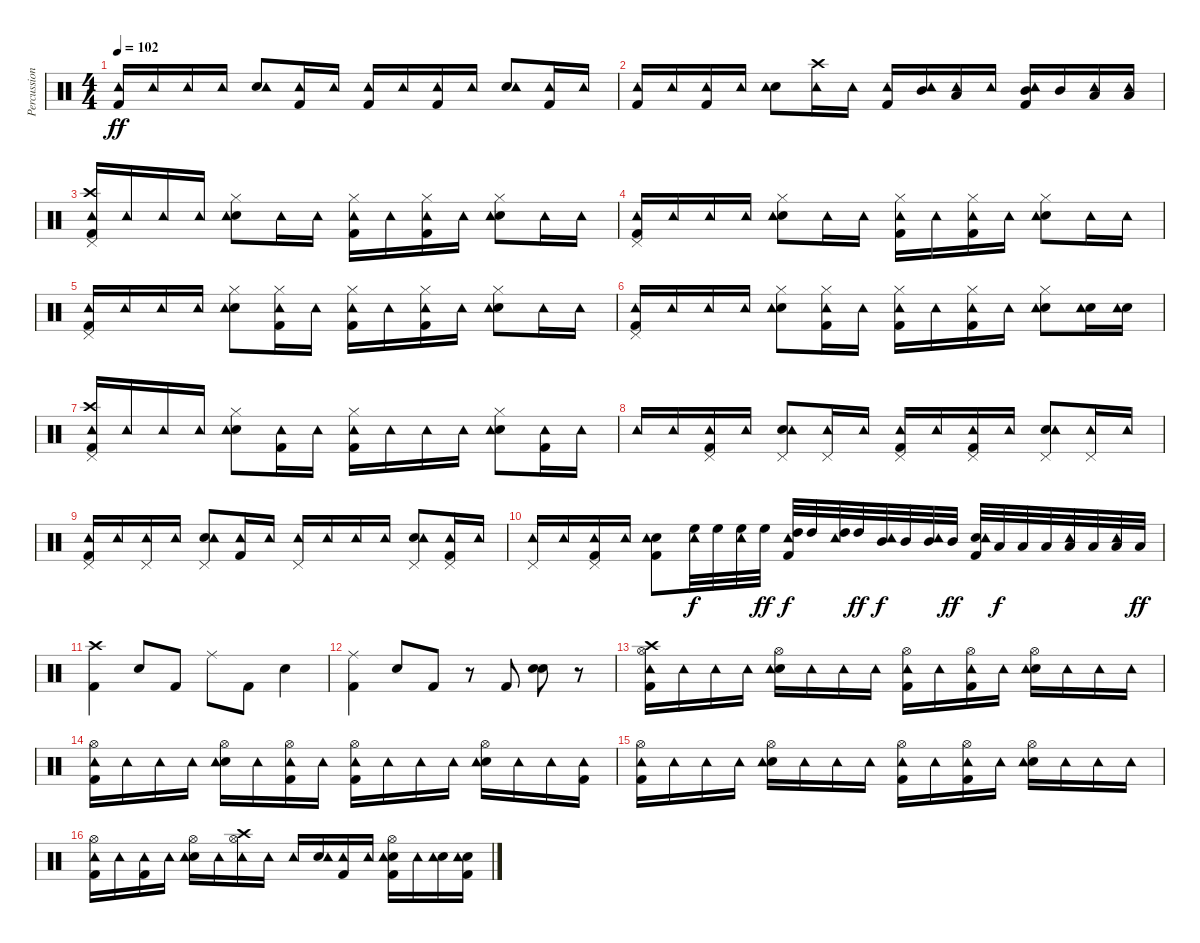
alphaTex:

\track ("Percussions" "Percussion") {instrument percussion}
\staff {score}
\articulation defaults
\ts (4 4)
\tempo 102
\clef neutral
\ks c
("Kick (hit) 2" "Tambourine (hit)").16{dy ff} "Tambourine (hit)".16 "Tambourine (hit)".16 "Tambourine (hit)".16 ("Snare (hit) 2" "Tambourine (hit)").8 ("Kick (hit) 2" "Tambourine (hit)").16 "Tambourine (hit)".16 ("Kick (hit) 2" "Tambourine (hit)").16 "Tambourine (hit)".16 ("Kick (hit) 2" "Tambourine (hit)").16 "Tambourine (hit)".16 ("Snare (hit) 2" "Tambourine (hit)").8 ("Kick (hit) 2" "Tambourine (hit)").16 "Tambourine (hit)".16 |
("Kick (hit) 2" "Tambourine (hit)").16 "Tambourine (hit)".16 ("Kick (hit) 2" "Tambourine (hit)").16 "Tambourine (hit)".16 ("Snare (hit) 2" "Tambourine (hit)").8 ("Crash high (hit)" "Tambourine (hit)").16 "Tambourine (hit)".16 ("Kick (hit) 2" "Tambourine (hit)").16 ("Mid Tom (hit)" "Tambourine (hit)").16 ("Low Tom (hit)" "Tambourine (hit)").16 "Tambourine (hit)".16 ("Kick (hit) 2" "Mid Tom (hit)" "Tambourine (hit)").16 "Mid Tom (hit)".16 ("Low Floor Tom (hit)" "Tambourine (hit)").16 ("Low Floor Tom (hit)" "Tambourine (hit)").16 |
("Kick (hit) 2" "Pedal Hi-Hat (hit)" "Crash high (hit)" "Tambourine (hit)").16 "Tambourine (hit)".16 "Tambourine (hit)".16 "Tambourine (hit)".16 ("Snare (hit) 2" "Hi-Hat (closed)" "Tambourine (hit)").8 "Tambourine (hit)".16 "Tambourine (hit)".16 ("Kick (hit) 2" "Hi-Hat (closed)" "Tambourine (hit)").16 "Tambourine (hit)".16 ("Kick (hit) 2" "Hi-Hat (closed)" "Tambourine (hit)").16 "Tambourine (hit)".16 ("Snare (hit) 2" "Hi-Hat (closed)" "Tambourine (hit)").8 "Tambourine (hit)".16 "Tambourine (hit)".16 |
("Kick (hit) 2" "Pedal Hi-Hat (hit)" "Tambourine (hit)").16 "Tambourine (hit)".16 "Tambourine (hit)".16 "Tambourine (hit)".16 ("Snare (hit) 2" "Hi-Hat (closed)" "Tambourine (hit)").8 "Tambourine (hit)".16 "Tambourine (hit)".16 ("Kick (hit) 2" "Hi-Hat (closed)" "Tambourine (hit)").16 "Tambourine (hit)".16 ("Kick (hit) 2" "Hi-Hat (closed)" "Tambourine (hit)").16 "Tambourine (hit)".16 ("Snare (hit) 2" "Hi-Hat (closed)" "Tambourine (hit)").8 "Tambourine (hit)".16 "Tambourine (hit)".16 |
("Kick (hit) 2" "Pedal Hi-Hat (hit)" "Tambourine (hit)").16 "Tambourine (hit)".16 "Tambourine (hit)".16 "Tambourine (hit)".16 ("Snare (hit) 2" "Hi-Hat (closed)" "Tambourine (hit)").8 ("Kick (hit) 2" "Hi-Hat (closed)" "Tambourine (hit)").16 "Tambourine (hit)".16 ("Kick (hit) 2" "Hi-Hat (closed)" "Tambourine (hit)").16 "Tambourine (hit)".16 ("Kick (hit) 2" "Hi-Hat (closed)" "Tambourine (hit)").16 "Tambourine (hit)".16 ("Snare (hit) 2" "Hi-Hat (closed)" "Tambourine (hit)").8 "Tambourine (hit)".16 "Tambourine (hit)".16 |
("Kick (hit) 2" "Pedal Hi-Hat (hit)" "Tambourine (hit)").16 "Tambourine (hit)".16 "Tambourine (hit)".16 "Tambourine (hit)".16 ("Snare (hit) 2" "Hi-Hat (closed)" "Tambourine (hit)").8 ("Kick (hit) 2" "Hi-Hat (closed)" "Tambourine (hit)").16 "Tambourine (hit)".16 ("Kick (hit) 2" "Hi-Hat (closed)" "Tambourine (hit)").16 "Tambourine (hit)".16 ("Kick (hit) 2" "Hi-Hat (closed)" "Tambourine (hit)").16 "Tambourine (hit)".16 ("Snare (hit) 2" "Hi-Hat (closed)" "Tambourine (hit)").8 ("Snare (hit) 2" "Tambourine (hit)").16 ("Snare (hit) 2" "Tambourine (hit)").16 |
("Kick (hit) 2" "Pedal Hi-Hat (hit)" "Crash high (hit)" "Tambourine (hit)").16 "Tambourine (hit)".16 "Tambourine (hit)".16 "Tambourine (hit)".16 ("Snare (hit) 2" "Hi-Hat (closed)" "Tambourine (hit)").8 ("Kick (hit) 2" "Tambourine (hit)").16 "Tambourine (hit)".16 ("Kick (hit) 2" "Hi-Hat (closed)" "Tambourine (hit)").16 "Tambourine (hit)".16 "Tambourine (hit)".16 "Tambourine (hit)".16 ("Snare (hit) 2" "Hi-Hat (closed)" "Tambourine (hit)").8 ("Kick (hit) 2" "Tambourine (hit)").16 "Tambourine (hit)".16 |
"Tambourine (hit)".16 "Tambourine (hit)".16 ("Kick (hit) 2" "Pedal Hi-Hat (hit)" "Tambourine (hit)").16 "Tambourine (hit)".16 ("Snare (hit) 2" "Pedal Hi-Hat (hit)" "Tambourine (hit)").8 ("Pedal Hi-Hat (hit)" "Tambourine (hit)").16 "Tambourine (hit)".16 ("Kick (hit) 2" "Pedal Hi-Hat (hit)" "Tambourine (hit)").16 "Tambourine (hit)".16 ("Kick (hit) 2" "Pedal Hi-Hat (hit)" "Tambourine (hit)").16 "Tambourine (hit)".16 ("Snare (hit) 2" "Pedal Hi-Hat (hit)" "Tambourine (hit)").8 ("Pedal Hi-Hat (hit)" "Tambourine (hit)").16 "Tambourine (hit)".16 |
("Kick (hit) 2" "Pedal Hi-Hat (hit)" "Tambourine (hit)").16 "Tambourine (hit)".16 ("Pedal Hi-Hat (hit)" "Tambourine (hit)").16 "Tambourine (hit)".16 ("Snare (hit) 2" "Pedal Hi-Hat (hit)" "Tambourine (hit)").8 ("Kick (hit) 2" "Tambourine (hit)").16 "Tambourine (hit)".16 ("Pedal Hi-Hat (hit)" "Tambourine (hit)").16 "Tambourine (hit)".16 "Tambourine (hit)".16 "Tambourine (hit)".16 ("Snare (hit) 2" "Pedal Hi-Hat (hit)" "Tambourine (hit)").8 ("Kick (hit) 2" "Pedal Hi-Hat (hit)" "Tambourine (hit)").16 "Tambourine (hit)".16 |
("Pedal Hi-Hat (hit)" "Tambourine (hit)").16 "Tambourine (hit)".16 ("Kick (hit) 2" "Pedal Hi-Hat (hit)" "Tambourine (hit)").16 "Tambourine (hit)".16 ("Kick (hit) 2" "Snare (hit) 2" "Tambourine (hit)").8 ("High Floor Tom (hit)" "Tambourine (hit)").32{dy f} "High Floor Tom (hit)".32 ("High Floor Tom (hit)" "Tambourine (hit)").32 "High Floor Tom (hit)".32{dy ff} ("Kick (hit) 2" "High Tom (hit)" "Tambourine (hit)").32{dy f} "High Tom (hit)".32 ("High Tom (hit)" "Tambourine (hit)").32 "High Tom (hit)".32{dy ff} ("Mid Tom (hit)" "Tambourine (hit)").32{dy f} "Mid Tom (hit)".32 ("Mid Tom (hit)" "Tambourine (hit)").32 "Mid Tom (hit)".32{dy ff} ("Kick (hit) 2" "Snare (hit) 2" "Tambourine (hit)").32 "Low Tom (hit)".32{dy f} "Low Tom (hit)".32 "Low Tom (hit)".32 ("Low Tom (hit)" "Tambourine (hit)").32 "Low Tom (hit)".32 ("Low Tom (hit)" "Tambourine (hit)").32 "Low Tom (hit)".32{dy ff} |
("Kick (hit) 2" "Crash high (hit)").4 "Snare (hit) 2".8 "Kick (hit) 2".8 "Ride (middle)".8 "Kick (hit) 2".8 "Snare (hit) 2".4 |
("Kick (hit) 2" "Ride (middle)").4 "Snare (hit) 2".8 "Kick (hit) 2".8 r.8 "Kick (hit) 2".8 ("Snare (hit) 2" "Snare (hit) 2").8 r.8 |
("Kick (hit) 2" "Hi-Hat (open)" "Crash high (hit)" "Tambourine (hit)").16 "Tambourine (hit)".16 "Tambourine (hit)".16 "Tambourine (hit)".16 ("Snare (hit) 2" "Hi-Hat (open)" "Tambourine (hit)").16 "Tambourine (hit)".16 "Tambourine (hit)".16 "Tambourine (hit)".16 ("Kick (hit) 2" "Hi-Hat (open)" "Tambourine (hit)").16 "Tambourine (hit)".16 ("Kick (hit) 2" "Hi-Hat (open)" "Tambourine (hit)").16 "Tambourine (hit)".16 ("Snare (hit) 2" "Hi-Hat (open)" "Tambourine (hit)").16 "Tambourine (hit)".16 "Tambourine (hit)".16 "Tambourine (hit)".16 |
("Kick (hit) 2" "Hi-Hat (open)" "Tambourine (hit)").16 "Tambourine (hit)".16 "Tambourine (hit)".16 "Tambourine (hit)".16 ("Snare (hit) 2" "Hi-Hat (open)" "Tambourine (hit)").16 "Tambourine (hit)".16 ("Kick (hit) 2" "Hi-Hat (open)" "Tambourine (hit)").16 "Tambourine (hit)".16 ("Kick (hit) 2" "Hi-Hat (open)" "Tambourine (hit)").16 "Tambourine (hit)".16 "Tambourine (hit)".16 "Tambourine (hit)".16 ("Snare (hit) 2" "Hi-Hat (open)" "Tambourine (hit)").16 "Tambourine (hit)".16 "Tambourine (hit)".16 ("Kick (hit) 2" "Tambourine (hit)").16 |
("Kick (hit) 2" "Hi-Hat (open)" "Tambourine (hit)").16 "Tambourine (hit)".16 "Tambourine (hit)".16 "Tambourine (hit)".16 ("Snare (hit) 2" "Hi-Hat (open)" "Tambourine (hit)").16 "Tambourine (hit)".16 "Tambourine (hit)".16 "Tambourine (hit)".16 ("Kick (hit) 2" "Hi-Hat (open)" "Tambourine (hit)").16 "Tambourine (hit)".16 ("Kick (hit) 2" "Hi-Hat (open)" "Tambourine (hit)").16 "Tambourine (hit)".16 ("Snare (hit) 2" "Hi-Hat (open)" "Tambourine (hit)").16 "Tambourine (hit)".16 "Tambourine (hit)".16 "Tambourine (hit)".16 |
("Kick (hit) 2" "Hi-Hat (open)" "Tambourine (hit)").16 "Tambourine (hit)".16 ("Kick (hit) 2" "Tambourine (hit)").16 "Tambourine (hit)".16 ("Snare (hit) 2" "Hi-Hat (open)" "Tambourine (hit)").16 "Tambourine (hit)".16 ("Hi-Hat (open)" "Crash high (hit)" "Tambourine (hit)").16 "Tambourine (hit)".16 "Tambourine (hit)".16 ("Snare (hit) 2" "Tambourine (hit)").16 ("Kick (hit) 2" "Tambourine (hit)").16 "Tambourine (hit)".16 ("Kick (hit) 2" "Snare (hit) 2" "Hi-Hat (open)" "Tambourine (hit)").16 "Tambourine (hit)".16 ("Snare (hit) 2" "Tambourine (hit)").16 ("Kick (hit) 2" "Snare (hit) 2" "Tambourine (hit)").16
